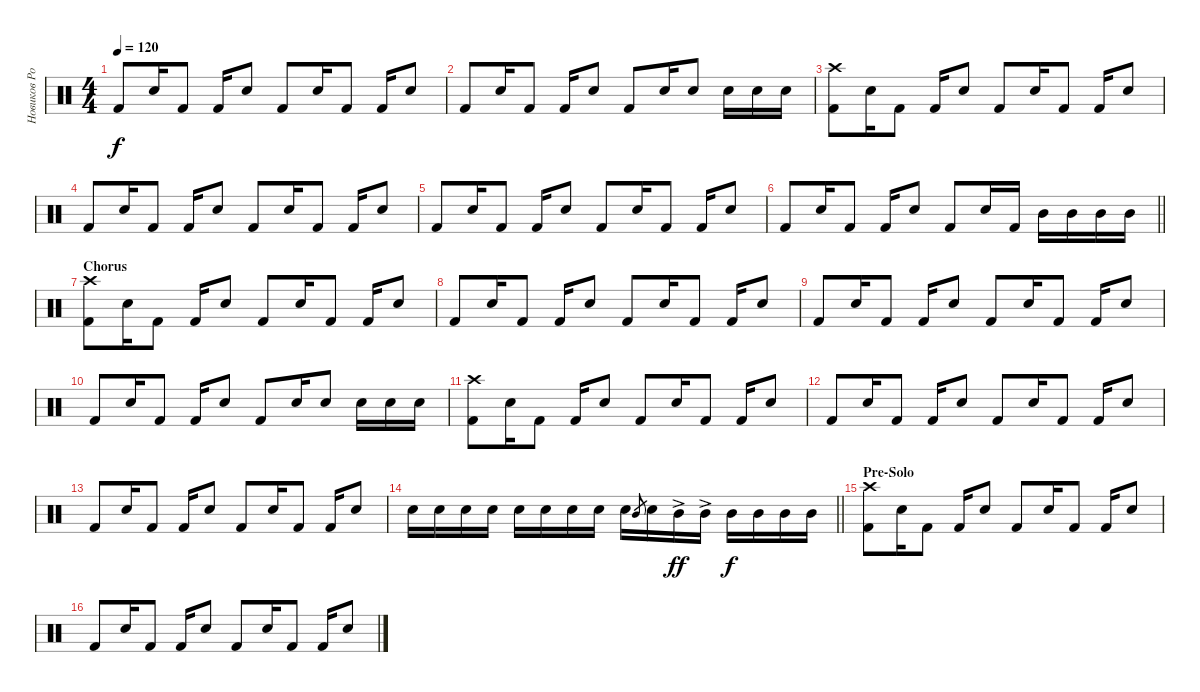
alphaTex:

\track ("Новиков Роман ( Ударные )" "Новиков Ро") {instrument percussion}
\staff {score}
\articulation defaults
\ts (4 4)
\tempo 120
\clef neutral
\ks c "Kick (hit) 2".8{dy f} "Electric Snare (hit)".16 "Kick (hit) 2".8 "Kick (hit) 2".16 "Electric Snare (hit)".8 "Kick (hit) 2".8 "Electric Snare (hit)".16 "Kick (hit) 2".8 "Kick (hit) 2".16 "Electric Snare (hit)".8
|
"Kick (hit) 2".8 "Electric Snare (hit)".16 "Kick (hit) 2".8 "Kick (hit) 2".16 "Electric Snare (hit)".8 "Kick (hit) 2".8 "Electric Snare (hit)".16 "Snare (hit) 2".8 "Snare (hit) 2".16 "Snare (hit) 2".16 "Snare (hit) 2".16 |
("Crash high (hit)" "Kick (hit) 2").8 "Electric Snare (hit)".16 "Kick (hit) 2".8 "Kick (hit) 2".16 "Electric Snare (hit)".8 "Kick (hit) 2".8 "Electric Snare (hit)".16 "Kick (hit) 2".8 "Kick (hit) 2".16 "Electric Snare (hit)".8 |
"Kick (hit) 2".8 "Electric Snare (hit)".16 "Kick (hit) 2".8 "Kick (hit) 2".16 "Electric Snare (hit)".8 "Kick (hit) 2".8 "Electric Snare (hit)".16 "Kick (hit) 2".8 "Kick (hit) 2".16 "Electric Snare (hit)".8 |
"Kick (hit) 2".8 "Electric Snare (hit)".16 "Kick (hit) 2".8 "Kick (hit) 2".16 "Electric Snare (hit)".8 "Kick (hit) 2".8 "Electric Snare (hit)".16 "Kick (hit) 2".8 "Kick (hit) 2".16 "Electric Snare (hit)".8 |
\barLineRight lightlight "Kick (hit) 2".8 "Electric Snare (hit)".16 "Kick (hit) 2".8 "Kick (hit) 2".16 "Electric Snare (hit)".8 "Kick (hit) 2".8 "Electric Snare (hit)".16 "Kick (hit) 2".16 "Mid Tom (hit)".16 "Mid Tom (hit)".16 "Mid Tom (hit)".16 "Mid Tom (hit)".16
|
\section ("" "Chorus")
("Crash high (hit)" "Kick (hit) 2").8 "Electric Snare (hit)".16 "Kick (hit) 2".8 "Kick (hit) 2".16 "Electric Snare (hit)".8 "Kick (hit) 2".8 "Electric Snare (hit)".16 "Kick (hit) 2".8 "Kick (hit) 2".16 "Electric Snare (hit)".8 |
"Kick (hit) 2".8 "Electric Snare (hit)".16 "Kick (hit) 2".8 "Kick (hit) 2".16 "Electric Snare (hit)".8 "Kick (hit) 2".8 "Electric Snare (hit)".16 "Kick (hit) 2".8 "Kick (hit) 2".16 "Electric Snare (hit)".8 |
"Kick (hit) 2".8 "Electric Snare (hit)".16 "Kick (hit) 2".8 "Kick (hit) 2".16 "Electric Snare (hit)".8 "Kick (hit) 2".8 "Electric Snare (hit)".16 "Kick (hit) 2".8 "Kick (hit) 2".16 "Electric Snare (hit)".8 |
"Kick (hit) 2".8 "Electric Snare (hit)".16 "Kick (hit) 2".8 "Kick (hit) 2".16 "Electric Snare (hit)".8 "Kick (hit) 2".8 "Electric Snare (hit)".16 "Snare (hit) 2".8 "Snare (hit) 2".16 "Snare (hit) 2".16 "Snare (hit) 2".16 |
("Crash high (hit)" "Kick (hit) 2").8 "Electric Snare (hit)".16 "Kick (hit) 2".8 "Kick (hit) 2".16 "Electric Snare (hit)".8 "Kick (hit) 2".8 "Electric Snare (hit)".16 "Kick (hit) 2".8 "Kick (hit) 2".16 "Electric Snare (hit)".8 |
"Kick (hit) 2".8 "Electric Snare (hit)".16 "Kick (hit) 2".8 "Kick (hit) 2".16 "Electric Snare (hit)".8 "Kick (hit) 2".8 "Electric Snare (hit)".16 "Kick (hit) 2".8 "Kick (hit) 2".16 "Electric Snare (hit)".8 |
"Kick (hit) 2".8 "Electric Snare (hit)".16 "Kick (hit) 2".8 "Kick (hit) 2".16 "Electric Snare (hit)".8 "Kick (hit) 2".8 "Electric Snare (hit)".16 "Kick (hit) 2".8 "Kick (hit) 2".16 "Electric Snare (hit)".8 |
\barLineRight lightlight "Snare (hit) 2".16 "Snare (hit) 2".16 "Snare (hit) 2".16 "Snare (hit) 2".16 "Snare (hit) 2".16 "Snare (hit) 2".16 "Snare (hit) 2".16 "Snare (hit) 2".16 "Snare (hit) 2".16 "Mid Tom (hit)"{h}.8{gr} "Snare (hit) 2".16 "Mid Tom (hit)"{ac}.16{dy ff} "Mid Tom (hit)"{ac}.16 "Mid Tom (hit)".16{dy f} "Mid Tom (hit)".16 "Mid Tom (hit)".16 "Mid Tom (hit)".16
|
\section ("" "Pre-Solo")
("Crash high (hit)" "Kick (hit) 2").8 "Electric Snare (hit)".16 "Kick (hit) 2".8 "Kick (hit) 2".16 "Electric Snare (hit)".8 "Kick (hit) 2".8 "Electric Snare (hit)".16 "Kick (hit) 2".8 "Kick (hit) 2".16 "Electric Snare (hit)".8 |
"Kick (hit) 2".8 "Electric Snare (hit)".16 "Kick (hit) 2".8 "Kick (hit) 2".16 "Electric Snare (hit)".8 "Kick (hit) 2".8 "Electric Snare (hit)".16 "Kick (hit) 2".8 "Kick (hit) 2".16 "Electric Snare (hit)".8
